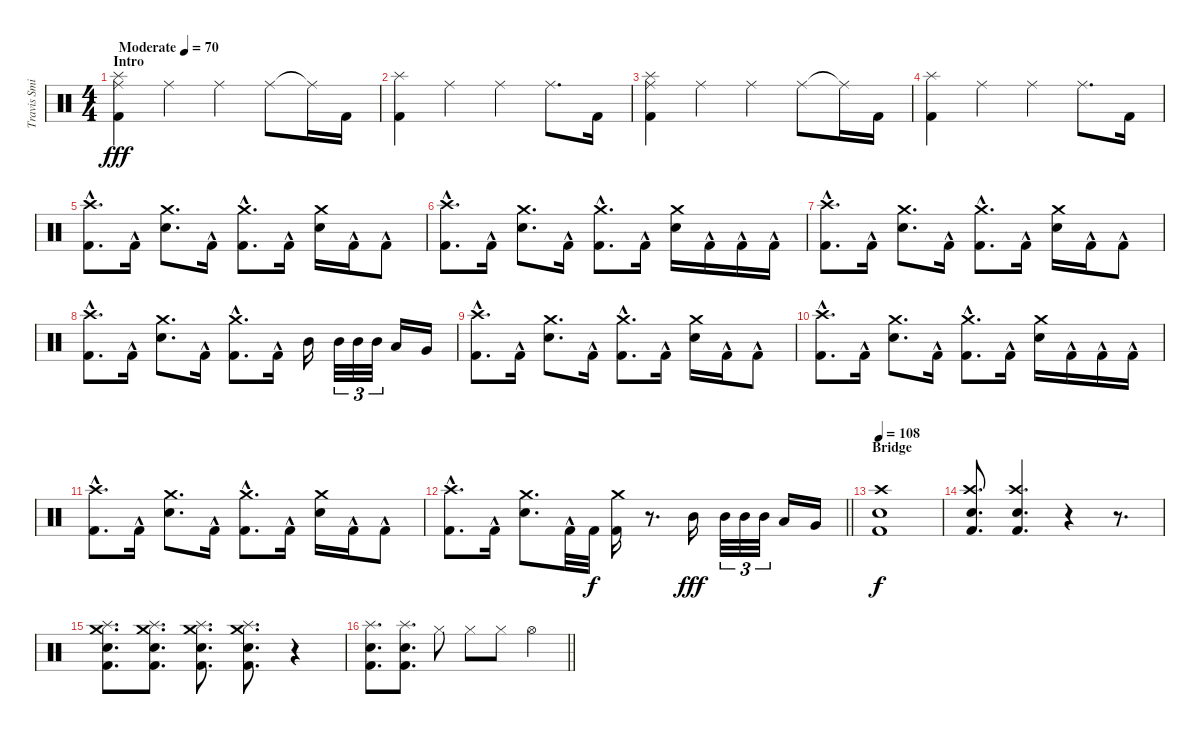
\track ("Travis Smith" "Travis Smi") {instrument percussion}
\staff {score}
\articulation defaults
\ts (4 4)
\section ("" "Intro")
\tempo (70 "Moderate")
\clef neutral
\ks c
("Splash (hit)" "Ride (middle)" "Kick (hit) 2").4{dy fff} "Ride (middle)".4 "Ride (middle)".4 "Ride (middle)".8 "Ride (middle)"{t}.16 "Kick (hit) 2".16 |
("Splash (hit)" "Kick (hit) 2").4 "Ride (middle)".4 "Ride (middle)".4 "Ride (middle)".8{d} "Kick (hit) 2".16 |
("Splash (hit)" "Ride (middle)" "Kick (hit) 2").4 "Ride (middle)".4 "Ride (middle)".4 "Ride (middle)".8 "Ride (middle)"{t}.16 "Kick (hit) 2".16 |
("Splash (hit)" "Kick (hit) 2").4 "Ride (middle)".4 "Ride (middle)".4 "Ride (middle)".8{d} "Kick (hit) 2".16 |
("Crash high (hit)" "Kick (hit) 2"{hac}).8{d} "Kick (hit) 2"{hac}.16 ("Crash medium (hit)" "Snare (hit) 2").8{d} "Kick (hit) 2"{hac}.16 ("Crash medium (hit)" "Kick (hit) 2"{hac}).8{d} "Kick (hit) 2"{hac}.16 ("Crash medium (hit)" "Snare (hit) 2").16 "Kick (hit) 2"{hac}.16 "Kick (hit) 2"{hac}.8 |
("Crash high (hit)" "Kick (hit) 2"{hac}).8{d} "Kick (hit) 2"{hac}.16 ("Crash medium (hit)" "Snare (hit) 2").8{d} "Kick (hit) 2"{hac}.16 ("Crash medium (hit)" "Kick (hit) 2"{hac}).8{d} "Kick (hit) 2"{hac}.16 ("Crash medium (hit)" "Snare (hit) 2").16 "Kick (hit) 2"{hac}.16 "Kick (hit) 2"{hac}.16 "Kick (hit) 2"{hac}.16 |
("Crash high (hit)" "Kick (hit) 2"{hac}).8{d} "Kick (hit) 2"{hac}.16 ("Crash medium (hit)" "Snare (hit) 2").8{d} "Kick (hit) 2"{hac}.16 ("Crash medium (hit)" "Kick (hit) 2"{hac}).8{d} "Kick (hit) 2"{hac}.16 ("Crash medium (hit)" "Snare (hit) 2").16 "Kick (hit) 2"{hac}.16 "Kick (hit) 2"{hac}.8 |
("Crash high (hit)" "Kick (hit) 2"{hac}).8{d} "Kick (hit) 2"{hac}.16 ("Crash medium (hit)" "Snare (hit) 2").8{d} "Kick (hit) 2"{hac}.16 ("Crash medium (hit)" "Kick (hit) 2"{hac}).8{d} "Kick (hit) 2"{hac}.16 "Mid Tom (hit)".16{beam splitsecondary} "Mid Tom (hit)".32{tu (3 2)} "Mid Tom (hit)".32{tu (3 2)} "Mid Tom (hit)".32{tu (3 2) beam splitsecondary} "Low Tom (hit)".16 "Very Low Tom (hit)".16 |
("Crash high (hit)" "Kick (hit) 2"{hac}).8{d} "Kick (hit) 2"{hac}.16 ("Crash medium (hit)" "Snare (hit) 2").8{d} "Kick (hit) 2"{hac}.16 ("Crash medium (hit)" "Kick (hit) 2"{hac}).8{d} "Kick (hit) 2"{hac}.16 ("Crash medium (hit)" "Snare (hit) 2").16 "Kick (hit) 2"{hac}.16 "Kick (hit) 2"{hac}.8 |
("Crash high (hit)" "Kick (hit) 2"{hac}).8{d} "Kick (hit) 2"{hac}.16 ("Crash medium (hit)" "Snare (hit) 2").8{d} "Kick (hit) 2"{hac}.16 ("Crash medium (hit)" "Kick (hit) 2"{hac}).8{d} "Kick (hit) 2"{hac}.16 ("Crash medium (hit)" "Snare (hit) 2").16 "Kick (hit) 2"{hac}.16 "Kick (hit) 2"{hac}.16 "Kick (hit) 2"{hac}.16 |
("Crash high (hit)" "Kick (hit) 2"{hac}).8{d} "Kick (hit) 2"{hac}.16 ("Crash medium (hit)" "Snare (hit) 2").8{d} "Kick (hit) 2"{hac}.16 ("Crash medium (hit)" "Kick (hit) 2"{hac}).8{d} "Kick (hit) 2"{hac}.16 ("Crash medium (hit)" "Snare (hit) 2").16 "Kick (hit) 2"{hac}.16 "Kick (hit) 2"{hac}.8 |
\barLineRight lightlight
("Crash high (hit)" "Kick (hit) 2"{hac}).8{d} "Kick (hit) 2"{hac}.16 ("Crash medium (hit)" "Snare (hit) 2").8{d} "Kick (hit) 2"{hac}.32 "Kick (hit) 2".32{dy f} ("Crash medium (hit)" "Kick (hit) 2").16 r.8{d} "Mid Tom (hit)".16{dy fff beam splitsecondary} "Mid Tom (hit)".32{tu (3 2)} "Mid Tom (hit)".32{tu (3 2)} "Mid Tom (hit)".32{tu (3 2) beam splitsecondary} "Low Tom (hit)".16 "Very Low Tom (hit)".16 |
\section ("" "Bridge")
\tempo 108
("Crash high (hit)" "Snare (hit) 2" "Kick (hit) 2").1{dy f} |
("Crash high (hit)" "Snare (hit) 2" "Kick (hit) 2").8{d} ("Crash high (hit)" "Snare (hit) 2" "Kick (hit) 2").4{d} r.4 r.8{d} |
("Crash medium (hit)" "Splash (hit)" "Snare (hit) 2" "Kick (hit) 2").8{d} ("Crash medium (hit)" "Splash (hit)" "Snare (hit) 2" "Kick (hit) 2").8{d} ("Crash medium (hit)" "Splash (hit)" "Snare (hit) 2" "Kick (hit) 2").8{d} ("Crash medium (hit)" "Splash (hit)" "Snare (hit) 2" "Kick (hit) 2").8{d} r.4 |
\barLineRight lightlight
("Splash (hit)" "Snare (hit) 2" "Kick (hit) 2").8{d} ("Splash (hit)" "Snare (hit) 2" "Kick (hit) 2").8{d} "Hi-Hat (closed)".8 "Hi-Hat (closed)".8 "Hi-Hat (closed)".8 "Hi-Hat (open)".4
